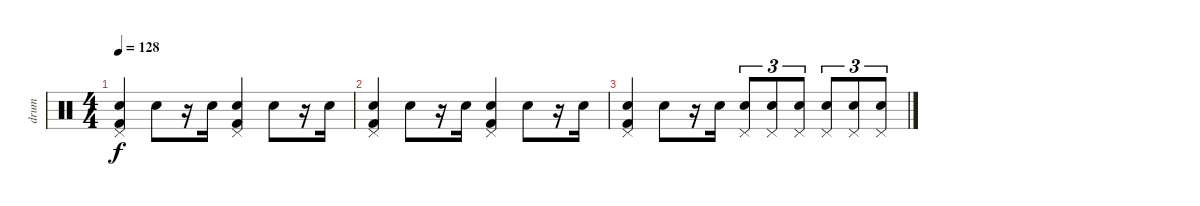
\track ("drum" "drum") {instrument percussion}
\staff {score}
\articulation defaults
\ts (4 4)
\tempo 128
\clef neutral
\ks c
("Pedal Hi-Hat (hit)" "Kick (hit) 2" "Electric Snare (hit)").4{dy f} "Electric Snare (hit)".8 r.16 "Electric Snare (hit)".16 ("Pedal Hi-Hat (hit)" "Kick (hit) 2" "Electric Snare (hit)").4 "Electric Snare (hit)".8 r.16 "Electric Snare (hit)".16 |
("Pedal Hi-Hat (hit)" "Kick (hit) 2" "Electric Snare (hit)").4 "Electric Snare (hit)".8 r.16 "Electric Snare (hit)".16 ("Pedal Hi-Hat (hit)" "Kick (hit) 2" "Electric Snare (hit)").4 "Electric Snare (hit)".8 r.16 "Electric Snare (hit)".16 |
("Pedal Hi-Hat (hit)" "Kick (hit) 2" "Electric Snare (hit)").4 "Electric Snare (hit)".8 r.16 "Electric Snare (hit)".16 ("Pedal Hi-Hat (hit)" "Electric Snare (hit)").8{tu (3 2)} ("Pedal Hi-Hat (hit)" "Electric Snare (hit)").8{tu (3 2)} ("Pedal Hi-Hat (hit)" "Electric Snare (hit)").8{tu (3 2)} ("Pedal Hi-Hat (hit)" "Electric Snare (hit)").8{tu (3 2)} ("Pedal Hi-Hat (hit)" "Electric Snare (hit)").8{tu (3 2)} ("Pedal Hi-Hat (hit)" "Electric Snare (hit)").8{tu (3 2)}
